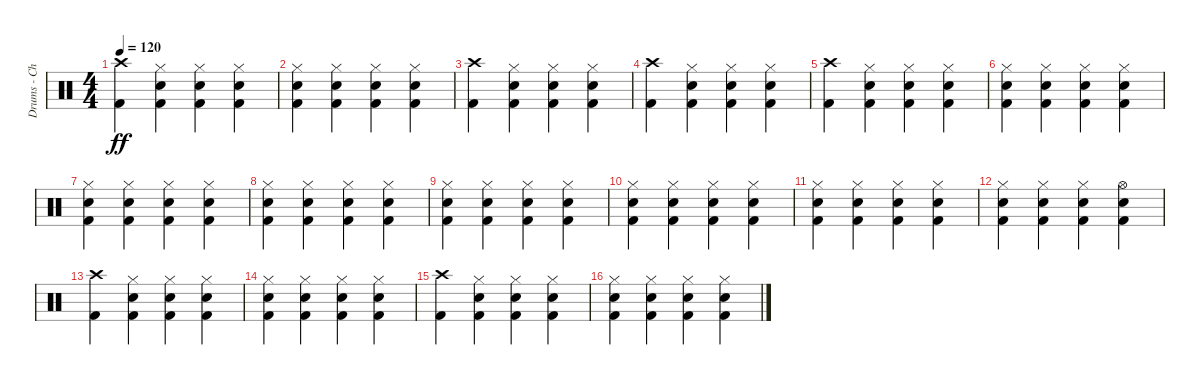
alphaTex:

\track ("Drums - Chris Frantz" "Drums - Ch") {instrument percussion}
\staff {score}
\articulation defaults
\ts (4 4)
\tempo 120
\clef neutral
\ks c
("Kick (hit) 2" "Crash high (hit)").4{dy ff} ("Kick (hit) 2" "Snare (hit) 2" "Hi-Hat (closed)").4 ("Kick (hit) 2" "Snare (hit) 2" "Hi-Hat (closed)").4 ("Kick (hit) 2" "Snare (hit) 2" "Hi-Hat (closed)").4 |
("Kick (hit) 2" "Snare (hit) 2" "Hi-Hat (closed)").4 ("Kick (hit) 2" "Snare (hit) 2" "Hi-Hat (closed)").4 ("Kick (hit) 2" "Snare (hit) 2" "Hi-Hat (closed)").4 ("Kick (hit) 2" "Snare (hit) 2" "Hi-Hat (closed)").4 |
("Kick (hit) 2" "Crash high (hit)").4 ("Kick (hit) 2" "Snare (hit) 2" "Hi-Hat (closed)").4 ("Kick (hit) 2" "Snare (hit) 2" "Hi-Hat (closed)").4 ("Kick (hit) 2" "Snare (hit) 2" "Hi-Hat (closed)").4 |
("Kick (hit) 2" "Crash high (hit)").4 ("Kick (hit) 2" "Snare (hit) 2" "Hi-Hat (closed)").4 ("Kick (hit) 2" "Snare (hit) 2" "Hi-Hat (closed)").4 ("Kick (hit) 2" "Snare (hit) 2" "Hi-Hat (closed)").4 |
("Kick (hit) 2" "Crash high (hit)").4 ("Kick (hit) 2" "Snare (hit) 2" "Hi-Hat (closed)").4 ("Kick (hit) 2" "Snare (hit) 2" "Hi-Hat (closed)").4 ("Kick (hit) 2" "Snare (hit) 2" "Hi-Hat (closed)").4 |
("Kick (hit) 2" "Snare (hit) 2" "Hi-Hat (closed)").4 ("Kick (hit) 2" "Snare (hit) 2" "Hi-Hat (closed)").4 ("Kick (hit) 2" "Snare (hit) 2" "Hi-Hat (closed)").4 ("Kick (hit) 2" "Snare (hit) 2" "Hi-Hat (closed)").4 |
("Kick (hit) 2" "Snare (hit) 2" "Hi-Hat (closed)").4 ("Kick (hit) 2" "Snare (hit) 2" "Hi-Hat (closed)").4 ("Kick (hit) 2" "Snare (hit) 2" "Hi-Hat (closed)").4 ("Kick (hit) 2" "Snare (hit) 2" "Hi-Hat (closed)").4 |
("Kick (hit) 2" "Snare (hit) 2" "Hi-Hat (closed)").4 ("Kick (hit) 2" "Snare (hit) 2" "Hi-Hat (closed)").4 ("Kick (hit) 2" "Snare (hit) 2" "Hi-Hat (closed)").4 ("Kick (hit) 2" "Snare (hit) 2" "Hi-Hat (closed)").4 |
("Kick (hit) 2" "Snare (hit) 2" "Hi-Hat (closed)").4 ("Kick (hit) 2" "Snare (hit) 2" "Hi-Hat (closed)").4 ("Kick (hit) 2" "Snare (hit) 2" "Hi-Hat (closed)").4 ("Kick (hit) 2" "Snare (hit) 2" "Hi-Hat (closed)").4 |
("Kick (hit) 2" "Snare (hit) 2" "Hi-Hat (closed)").4 ("Kick (hit) 2" "Snare (hit) 2" "Hi-Hat (closed)").4 ("Kick (hit) 2" "Snare (hit) 2" "Hi-Hat (closed)").4 ("Kick (hit) 2" "Snare (hit) 2" "Hi-Hat (closed)").4 |
("Kick (hit) 2" "Snare (hit) 2" "Hi-Hat (closed)").4 ("Kick (hit) 2" "Snare (hit) 2" "Hi-Hat (closed)").4 ("Kick (hit) 2" "Snare (hit) 2" "Hi-Hat (closed)").4 ("Kick (hit) 2" "Snare (hit) 2" "Hi-Hat (closed)").4 |
("Kick (hit) 2" "Snare (hit) 2" "Hi-Hat (closed)").4 ("Kick (hit) 2" "Snare (hit) 2" "Hi-Hat (closed)").4 ("Kick (hit) 2" "Snare (hit) 2" "Hi-Hat (closed)").4 ("Kick (hit) 2" "Snare (hit) 2" "Hi-Hat (open)").4 |
("Kick (hit) 2" "Crash high (hit)").4 ("Kick (hit) 2" "Snare (hit) 2" "Hi-Hat (closed)").4 ("Kick (hit) 2" "Snare (hit) 2" "Hi-Hat (closed)").4 ("Kick (hit) 2" "Snare (hit) 2" "Hi-Hat (closed)").4 |
("Kick (hit) 2" "Snare (hit) 2" "Hi-Hat (closed)").4 ("Kick (hit) 2" "Snare (hit) 2" "Hi-Hat (closed)").4 ("Kick (hit) 2" "Snare (hit) 2" "Hi-Hat (closed)").4 ("Kick (hit) 2" "Snare (hit) 2" "Hi-Hat (closed)").4 |
("Kick (hit) 2" "Crash high (hit)").4 ("Kick (hit) 2" "Snare (hit) 2" "Hi-Hat (closed)").4 ("Kick (hit) 2" "Snare (hit) 2" "Hi-Hat (closed)").4 ("Kick (hit) 2" "Snare (hit) 2" "Hi-Hat (closed)").4 |
("Kick (hit) 2" "Snare (hit) 2" "Hi-Hat (closed)").4 ("Kick (hit) 2" "Snare (hit) 2" "Hi-Hat (closed)").4 ("Kick (hit) 2" "Snare (hit) 2" "Hi-Hat (closed)").4 ("Kick (hit) 2" "Snare (hit) 2" "Hi-Hat (closed)").4
